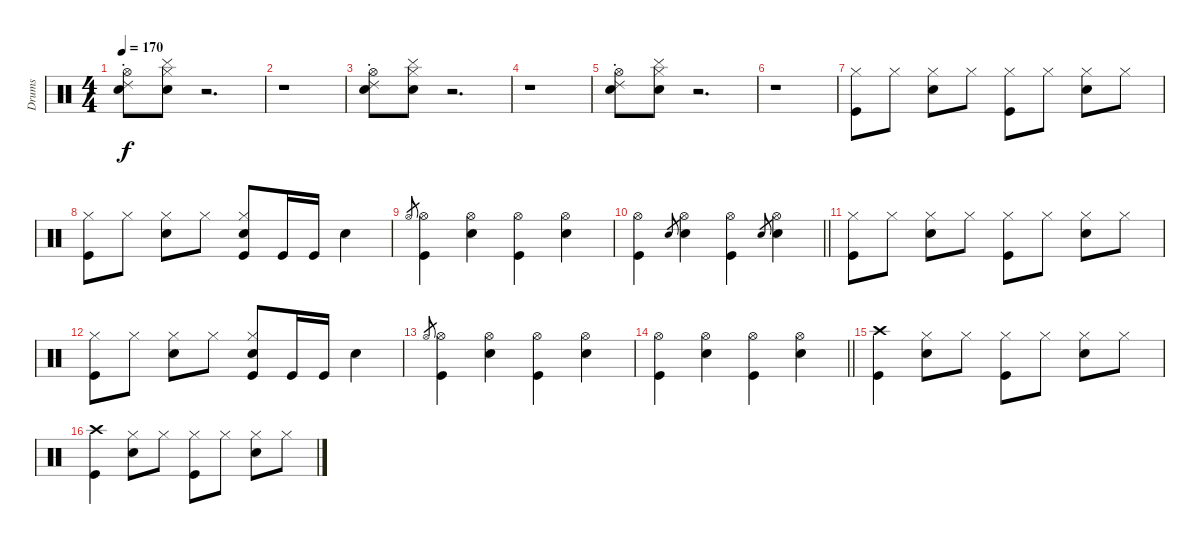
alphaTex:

\track ("Drums" "Drums") {instrument percussion}
\staff {score}
\articulation defaults
\ts (4 4)
\tempo 170
\clef neutral
\ks c
("Hi-Hat (open)" "Snare (hit) 2" "Ride (choke) 2").8{dy f} ("Hi-Hat (closed)" "Snare (hit) 2" "Cymbal (hit)").8 r.2{d} |
r.1 |
("Hi-Hat (open)" "Snare (hit) 2" "Ride (choke) 2").8 ("Hi-Hat (closed)" "Snare (hit) 2" "Cymbal (hit)").8 r.2{d} |
r.1 |
("Hi-Hat (open)" "Snare (hit) 2" "Ride (choke) 2").8 ("Hi-Hat (closed)" "Snare (hit) 2" "Cymbal (hit)").8 r.2{d} |
r.1 |
("Hi-Hat (closed)" "Kick (hit)").8 "Hi-Hat (closed)".8 ("Hi-Hat (closed)" "Snare (hit) 2").8 "Hi-Hat (closed)".8 ("Hi-Hat (closed)" "Kick (hit)").8 "Hi-Hat (closed)".8 ("Hi-Hat (closed)" "Snare (hit) 2").8 "Hi-Hat (closed)".8 |
("Hi-Hat (closed)" "Kick (hit)").8 "Hi-Hat (closed)".8 ("Hi-Hat (closed)" "Snare (hit) 2").8 "Hi-Hat (closed)".8 ("Hi-Hat (closed)" "Snare (hit) 2" "Kick (hit)").8 "Kick (hit)".16 "Kick (hit)".16 "Snare (hit) 2".4 |
"Hi-Hat (open)".8{gr} ("Hi-Hat (open)" "Kick (hit)").4 ("Hi-Hat (open)" "Snare (hit) 2").4 ("Hi-Hat (open)" "Kick (hit)").4 ("Hi-Hat (open)" "Snare (hit) 2").4 |
\barLineRight lightlight
("Hi-Hat (open)" "Kick (hit)").4 "Snare (hit) 2".8{gr} ("Hi-Hat (open)" "Snare (hit) 2").4 ("Hi-Hat (open)" "Kick (hit)").4 "Snare (hit) 2".8{gr} ("Hi-Hat (open)" "Snare (hit) 2").4 |
("Hi-Hat (closed)" "Kick (hit)").8 "Hi-Hat (closed)".8 ("Hi-Hat (closed)" "Snare (hit) 2").8 "Hi-Hat (closed)".8 ("Hi-Hat (closed)" "Kick (hit)").8 "Hi-Hat (closed)".8 ("Hi-Hat (closed)" "Snare (hit) 2").8 "Hi-Hat (closed)".8 |
("Hi-Hat (closed)" "Kick (hit)").8 "Hi-Hat (closed)".8 ("Hi-Hat (closed)" "Snare (hit) 2").8 "Hi-Hat (closed)".8 ("Hi-Hat (closed)" "Snare (hit) 2" "Kick (hit)").8 "Kick (hit)".16 "Kick (hit)".16 "Snare (hit) 2".4 |
"Hi-Hat (open)".8{gr} ("Hi-Hat (open)" "Kick (hit)").4 ("Hi-Hat (open)" "Snare (hit) 2").4 ("Hi-Hat (open)" "Kick (hit)").4 ("Hi-Hat (open)" "Snare (hit) 2").4 |
\barLineRight lightlight
("Hi-Hat (open)" "Kick (hit)").4 ("Hi-Hat (open)" "Snare (hit) 2").4 ("Hi-Hat (open)" "Kick (hit)").4 ("Hi-Hat (open)" "Snare (hit) 2").4 |
("Crash high (hit)" "Kick (hit)").4 ("Hi-Hat (closed)" "Snare (hit) 2").8 "Hi-Hat (closed)".8 ("Hi-Hat (closed)" "Kick (hit)").8 "Hi-Hat (closed)".8 ("Hi-Hat (closed)" "Snare (hit) 2").8 "Hi-Hat (closed)".8 |
("Crash high (hit)" "Kick (hit)").4 ("Hi-Hat (closed)" "Snare (hit) 2").8 "Hi-Hat (closed)".8 ("Hi-Hat (closed)" "Kick (hit)").8 "Hi-Hat (closed)".8 ("Hi-Hat (closed)" "Snare (hit) 2").8 "Hi-Hat (closed)".8
